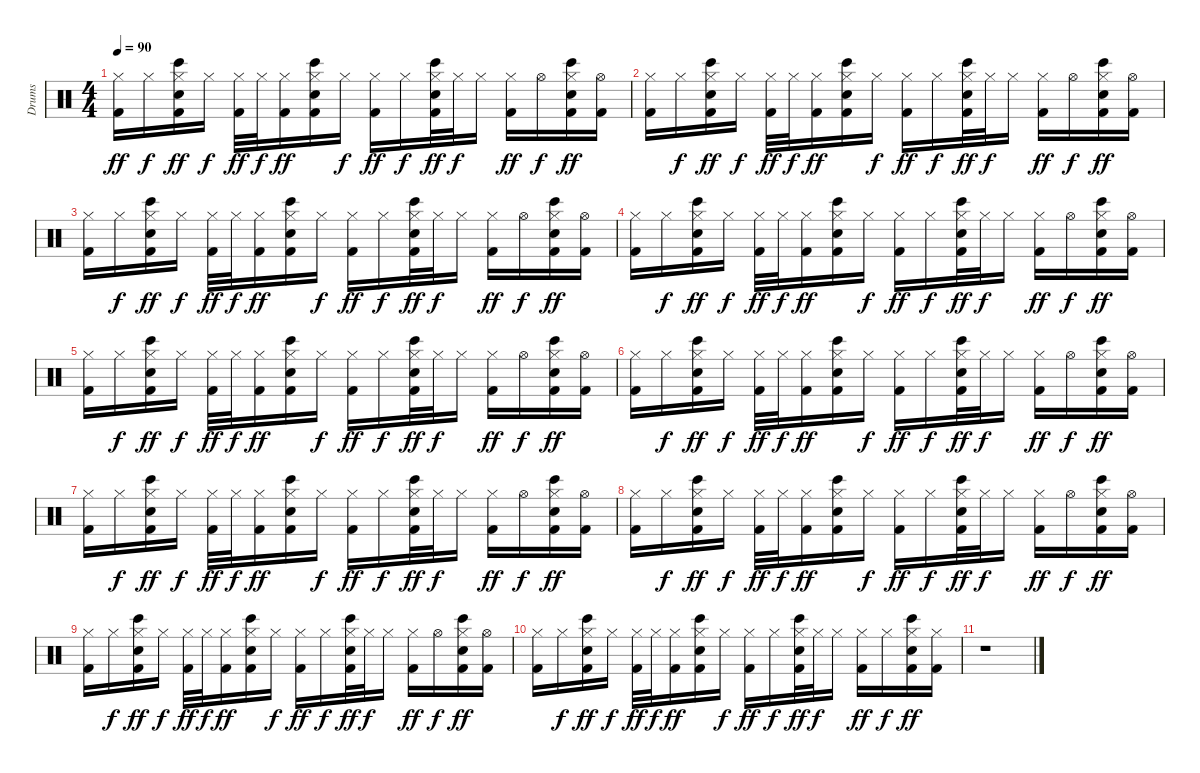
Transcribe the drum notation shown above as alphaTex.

\track ("Drums" "Drums") {instrument percussion}
\staff {score}
\articulation defaults
\ts (4 4)
\tempo 90
\clef neutral
\ks c
("Hi-Hat (closed)" "Kick (hit) 2").16{dy ff} "Hi-Hat (closed)".16{dy f} ("Hi-Hat (closed)" "Electric Snare (hit)" "Bongo High (hit)" "Kick (hit) 2").16{dy ff} "Hi-Hat (closed)".16{dy f} ("Hi-Hat (closed)" "Kick (hit) 2").32{dy ff} "Hi-Hat (closed)".32{dy f} ("Hi-Hat (closed)" "Kick (hit) 2").16{dy ff} ("Hi-Hat (closed)" "Electric Snare (hit)" "Bongo High (hit)" "Kick (hit) 2").16 "Hi-Hat (closed)".16{dy f} ("Hi-Hat (closed)" "Kick (hit) 2").16{dy ff} "Hi-Hat (closed)".16{dy f} ("Hi-Hat (closed)" "Electric Snare (hit)" "Bongo High (hit)" "Kick (hit) 2").32{dy ff} "Hi-Hat (closed)".32{dy f} "Hi-Hat (closed)".16 ("Hi-Hat (closed)" "Kick (hit) 2").16{dy ff} "Hi-Hat (open)".16{dy f} ("Hi-Hat (closed)" "Electric Snare (hit)" "Bongo High (hit)" "Kick (hit) 2").16{dy ff} ("Hi-Hat (open)" "Kick (hit) 2").16 |
("Hi-Hat (closed)" "Kick (hit) 2").16 "Hi-Hat (closed)".16{dy f} ("Hi-Hat (closed)" "Electric Snare (hit)" "Bongo High (hit)" "Kick (hit) 2").16{dy ff} "Hi-Hat (closed)".16{dy f} ("Hi-Hat (closed)" "Kick (hit) 2").32{dy ff} "Hi-Hat (closed)".32{dy f} ("Hi-Hat (closed)" "Kick (hit) 2").16{dy ff} ("Hi-Hat (closed)" "Electric Snare (hit)" "Bongo High (hit)" "Kick (hit) 2").16 "Hi-Hat (closed)".16{dy f} ("Hi-Hat (closed)" "Kick (hit) 2").16{dy ff} "Hi-Hat (closed)".16{dy f} ("Hi-Hat (closed)" "Electric Snare (hit)" "Bongo High (hit)" "Kick (hit) 2").32{dy ff} "Hi-Hat (closed)".32{dy f} "Hi-Hat (closed)".16 ("Hi-Hat (closed)" "Kick (hit) 2").16{dy ff} "Hi-Hat (open)".16{dy f} ("Hi-Hat (closed)" "Electric Snare (hit)" "Bongo High (hit)" "Kick (hit) 2").16{dy ff} ("Hi-Hat (open)" "Kick (hit) 2").16 |
("Hi-Hat (closed)" "Kick (hit) 2").16 "Hi-Hat (closed)".16{dy f} ("Hi-Hat (closed)" "Electric Snare (hit)" "Bongo High (hit)" "Kick (hit) 2").16{dy ff} "Hi-Hat (closed)".16{dy f} ("Hi-Hat (closed)" "Kick (hit) 2").32{dy ff} "Hi-Hat (closed)".32{dy f} ("Hi-Hat (closed)" "Kick (hit) 2").16{dy ff} ("Hi-Hat (closed)" "Electric Snare (hit)" "Bongo High (hit)" "Kick (hit) 2").16 "Hi-Hat (closed)".16{dy f} ("Hi-Hat (closed)" "Kick (hit) 2").16{dy ff} "Hi-Hat (closed)".16{dy f} ("Hi-Hat (closed)" "Electric Snare (hit)" "Bongo High (hit)" "Kick (hit) 2").32{dy ff} "Hi-Hat (closed)".32{dy f} "Hi-Hat (closed)".16 ("Hi-Hat (closed)" "Kick (hit) 2").16{dy ff} "Hi-Hat (open)".16{dy f} ("Hi-Hat (closed)" "Electric Snare (hit)" "Bongo High (hit)" "Kick (hit) 2").16{dy ff} ("Hi-Hat (open)" "Kick (hit) 2").16 |
("Hi-Hat (closed)" "Kick (hit) 2").16 "Hi-Hat (closed)".16{dy f} ("Hi-Hat (closed)" "Electric Snare (hit)" "Bongo High (hit)" "Kick (hit) 2").16{dy ff} "Hi-Hat (closed)".16{dy f} ("Hi-Hat (closed)" "Kick (hit) 2").32{dy ff} "Hi-Hat (closed)".32{dy f} ("Hi-Hat (closed)" "Kick (hit) 2").16{dy ff} ("Hi-Hat (closed)" "Electric Snare (hit)" "Bongo High (hit)" "Kick (hit) 2").16 "Hi-Hat (closed)".16{dy f} ("Hi-Hat (closed)" "Kick (hit) 2").16{dy ff} "Hi-Hat (closed)".16{dy f} ("Hi-Hat (closed)" "Electric Snare (hit)" "Bongo High (hit)" "Kick (hit) 2").32{dy ff} "Hi-Hat (closed)".32{dy f} "Hi-Hat (closed)".16 ("Hi-Hat (closed)" "Kick (hit) 2").16{dy ff} "Hi-Hat (open)".16{dy f} ("Hi-Hat (closed)" "Electric Snare (hit)" "Bongo High (hit)" "Kick (hit) 2").16{dy ff} ("Hi-Hat (open)" "Kick (hit) 2").16 |
("Hi-Hat (closed)" "Kick (hit) 2").16 "Hi-Hat (closed)".16{dy f} ("Hi-Hat (closed)" "Electric Snare (hit)" "Bongo High (hit)" "Kick (hit) 2").16{dy ff} "Hi-Hat (closed)".16{dy f} ("Hi-Hat (closed)" "Kick (hit) 2").32{dy ff} "Hi-Hat (closed)".32{dy f} ("Hi-Hat (closed)" "Kick (hit) 2").16{dy ff} ("Hi-Hat (closed)" "Electric Snare (hit)" "Bongo High (hit)" "Kick (hit) 2").16 "Hi-Hat (closed)".16{dy f} ("Hi-Hat (closed)" "Kick (hit) 2").16{dy ff} "Hi-Hat (closed)".16{dy f} ("Hi-Hat (closed)" "Electric Snare (hit)" "Bongo High (hit)" "Kick (hit) 2").32{dy ff} "Hi-Hat (closed)".32{dy f} "Hi-Hat (closed)".16 ("Hi-Hat (closed)" "Kick (hit) 2").16{dy ff} "Hi-Hat (open)".16{dy f} ("Hi-Hat (closed)" "Electric Snare (hit)" "Bongo High (hit)" "Kick (hit) 2").16{dy ff} ("Hi-Hat (open)" "Kick (hit) 2").16 |
("Hi-Hat (closed)" "Kick (hit) 2").16 "Hi-Hat (closed)".16{dy f} ("Hi-Hat (closed)" "Electric Snare (hit)" "Bongo High (hit)" "Kick (hit) 2").16{dy ff} "Hi-Hat (closed)".16{dy f} ("Hi-Hat (closed)" "Kick (hit) 2").32{dy ff} "Hi-Hat (closed)".32{dy f} ("Hi-Hat (closed)" "Kick (hit) 2").16{dy ff} ("Hi-Hat (closed)" "Electric Snare (hit)" "Bongo High (hit)" "Kick (hit) 2").16 "Hi-Hat (closed)".16{dy f} ("Hi-Hat (closed)" "Kick (hit) 2").16{dy ff} "Hi-Hat (closed)".16{dy f} ("Hi-Hat (closed)" "Electric Snare (hit)" "Bongo High (hit)" "Kick (hit) 2").32{dy ff} "Hi-Hat (closed)".32{dy f} "Hi-Hat (closed)".16 ("Hi-Hat (closed)" "Kick (hit) 2").16{dy ff} "Hi-Hat (open)".16{dy f} ("Hi-Hat (closed)" "Electric Snare (hit)" "Bongo High (hit)" "Kick (hit) 2").16{dy ff} ("Hi-Hat (open)" "Kick (hit) 2").16 |
("Hi-Hat (closed)" "Kick (hit) 2").16 "Hi-Hat (closed)".16{dy f} ("Hi-Hat (closed)" "Electric Snare (hit)" "Bongo High (hit)" "Kick (hit) 2").16{dy ff} "Hi-Hat (closed)".16{dy f} ("Hi-Hat (closed)" "Kick (hit) 2").32{dy ff} "Hi-Hat (closed)".32{dy f} ("Hi-Hat (closed)" "Kick (hit) 2").16{dy ff} ("Hi-Hat (closed)" "Electric Snare (hit)" "Bongo High (hit)" "Kick (hit) 2").16 "Hi-Hat (closed)".16{dy f} ("Hi-Hat (closed)" "Kick (hit) 2").16{dy ff} "Hi-Hat (closed)".16{dy f} ("Hi-Hat (closed)" "Electric Snare (hit)" "Bongo High (hit)" "Kick (hit) 2").32{dy ff} "Hi-Hat (closed)".32{dy f} "Hi-Hat (closed)".16 ("Hi-Hat (closed)" "Kick (hit) 2").16{dy ff} "Hi-Hat (open)".16{dy f} ("Hi-Hat (closed)" "Electric Snare (hit)" "Bongo High (hit)" "Kick (hit) 2").16{dy ff} ("Hi-Hat (open)" "Kick (hit) 2").16 |
("Hi-Hat (closed)" "Kick (hit) 2").16 "Hi-Hat (closed)".16{dy f} ("Hi-Hat (closed)" "Electric Snare (hit)" "Bongo High (hit)" "Kick (hit) 2").16{dy ff} "Hi-Hat (closed)".16{dy f} ("Hi-Hat (closed)" "Kick (hit) 2").32{dy ff} "Hi-Hat (closed)".32{dy f} ("Hi-Hat (closed)" "Kick (hit) 2").16{dy ff} ("Hi-Hat (closed)" "Electric Snare (hit)" "Bongo High (hit)" "Kick (hit) 2").16 "Hi-Hat (closed)".16{dy f} ("Hi-Hat (closed)" "Kick (hit) 2").16{dy ff} "Hi-Hat (closed)".16{dy f} ("Hi-Hat (closed)" "Electric Snare (hit)" "Bongo High (hit)" "Kick (hit) 2").32{dy ff} "Hi-Hat (closed)".32{dy f} "Hi-Hat (closed)".16 ("Hi-Hat (closed)" "Kick (hit) 2").16{dy ff} "Hi-Hat (open)".16{dy f} ("Hi-Hat (closed)" "Electric Snare (hit)" "Bongo High (hit)" "Kick (hit) 2").16{dy ff} ("Hi-Hat (open)" "Kick (hit) 2").16 |
("Hi-Hat (closed)" "Kick (hit) 2").16 "Hi-Hat (closed)".16{dy f} ("Hi-Hat (closed)" "Electric Snare (hit)" "Bongo High (hit)" "Kick (hit) 2").16{dy ff} "Hi-Hat (closed)".16{dy f} ("Hi-Hat (closed)" "Kick (hit) 2").32{dy ff} "Hi-Hat (closed)".32{dy f} ("Hi-Hat (closed)" "Kick (hit) 2").16{dy ff} ("Hi-Hat (closed)" "Electric Snare (hit)" "Bongo High (hit)" "Kick (hit) 2").16 "Hi-Hat (closed)".16{dy f} ("Hi-Hat (closed)" "Kick (hit) 2").16{dy ff} "Hi-Hat (closed)".16{dy f} ("Hi-Hat (closed)" "Electric Snare (hit)" "Bongo High (hit)" "Kick (hit) 2").32{dy ff} "Hi-Hat (closed)".32{dy f} "Hi-Hat (closed)".16 ("Hi-Hat (closed)" "Kick (hit) 2").16{dy ff} "Hi-Hat (open)".16{dy f} ("Hi-Hat (closed)" "Electric Snare (hit)" "Bongo High (hit)" "Kick (hit) 2").16{dy ff} ("Hi-Hat (open)" "Kick (hit) 2").16 |
("Hi-Hat (closed)" "Kick (hit) 2").16 "Hi-Hat (closed)".16{dy f} ("Hi-Hat (closed)" "Electric Snare (hit)" "Bongo High (hit)" "Kick (hit) 2").16{dy ff} "Hi-Hat (closed)".16{dy f} ("Hi-Hat (closed)" "Kick (hit) 2").32{dy ff} "Hi-Hat (closed)".32{dy f} ("Hi-Hat (closed)" "Kick (hit) 2").16{dy ff} ("Hi-Hat (closed)" "Electric Snare (hit)" "Bongo High (hit)" "Kick (hit) 2").16 "Hi-Hat (closed)".16{dy f} ("Hi-Hat (closed)" "Kick (hit) 2").16{dy ff} "Hi-Hat (closed)".16{dy f} ("Hi-Hat (closed)" "Electric Snare (hit)" "Bongo High (hit)" "Kick (hit) 2").32{dy ff} "Hi-Hat (closed)".32{dy f} "Hi-Hat (closed)".16 ("Hi-Hat (closed)" "Kick (hit) 2").16{dy ff} "Hi-Hat (closed)".16{dy f} ("Hi-Hat (closed)" "Electric Snare (hit)" "Bongo High (hit)" "Kick (hit) 2").16{dy ff} ("Hi-Hat (closed)" "Kick (hit) 2").16 |
r.1
